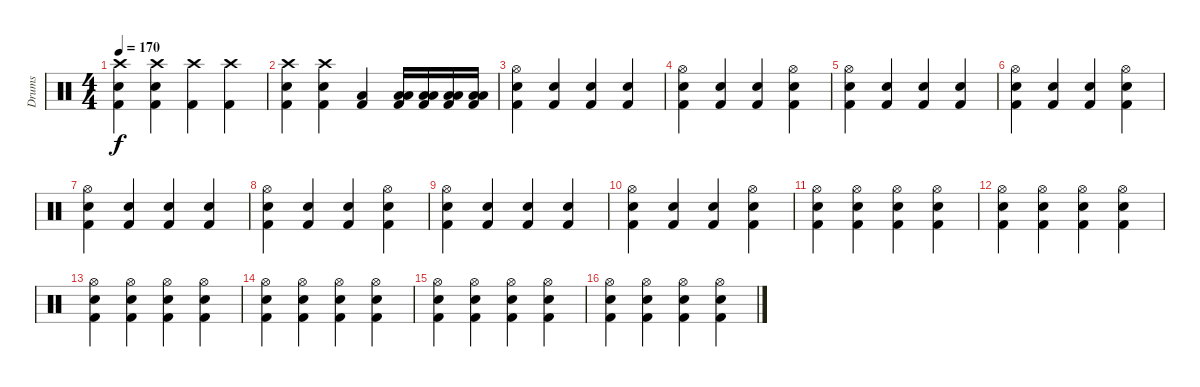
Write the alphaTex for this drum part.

\track ("Drums" "Drums") {instrument percussion}
\staff {score}
\articulation defaults
\ts (4 4)
\tempo 170
\clef neutral
\ks c
("Crash high (hit)" "Snare (hit) 2" "Kick (hit) 2").4{dy f} ("Crash high (hit)" "Snare (hit) 2" "Kick (hit) 2").4 ("Crash high (hit)" "Kick (hit) 2").4 ("Crash high (hit)" "Kick (hit) 2").4 |
("Crash high (hit)" "Snare (hit) 2" "Kick (hit) 2").4 ("Crash high (hit)" "Snare (hit) 2" "Kick (hit) 2").4 ("Low Floor Tom (hit)" "Kick (hit) 2").4 ("Low Floor Tom (hit)" "Low Floor Tom (hit)" "Kick (hit) 2").16 ("Low Floor Tom (hit)" "Low Floor Tom (hit)" "Kick (hit) 2").16 ("Low Floor Tom (hit)" "Low Floor Tom (hit)" "Kick (hit) 2").16 ("Low Floor Tom (hit)" "Low Floor Tom (hit)" "Kick (hit) 2").16 |
("Hi-Hat (open)" "Snare (hit) 2" "Kick (hit) 2").4 ("Snare (hit) 2" "Kick (hit) 2").4 ("Snare (hit) 2" "Kick (hit) 2").4 ("Snare (hit) 2" "Kick (hit) 2").4 |
("Hi-Hat (open)" "Snare (hit) 2" "Kick (hit) 2").4 ("Snare (hit) 2" "Kick (hit) 2").4 ("Snare (hit) 2" "Kick (hit) 2").4 ("Hi-Hat (open)" "Snare (hit) 2" "Kick (hit) 2").4 |
("Hi-Hat (open)" "Snare (hit) 2" "Kick (hit) 2").4 ("Snare (hit) 2" "Kick (hit) 2").4 ("Snare (hit) 2" "Kick (hit) 2").4 ("Snare (hit) 2" "Kick (hit) 2").4 |
("Hi-Hat (open)" "Snare (hit) 2" "Kick (hit) 2").4 ("Snare (hit) 2" "Kick (hit) 2").4 ("Snare (hit) 2" "Kick (hit) 2").4 ("Hi-Hat (open)" "Snare (hit) 2" "Kick (hit) 2").4 |
("Hi-Hat (open)" "Snare (hit) 2" "Kick (hit) 2").4 ("Snare (hit) 2" "Kick (hit) 2").4 ("Snare (hit) 2" "Kick (hit) 2").4 ("Snare (hit) 2" "Kick (hit) 2").4 |
("Hi-Hat (open)" "Snare (hit) 2" "Kick (hit) 2").4 ("Snare (hit) 2" "Kick (hit) 2").4 ("Snare (hit) 2" "Kick (hit) 2").4 ("Hi-Hat (open)" "Snare (hit) 2" "Kick (hit) 2").4 |
("Hi-Hat (open)" "Snare (hit) 2" "Kick (hit) 2").4 ("Snare (hit) 2" "Kick (hit) 2").4 ("Snare (hit) 2" "Kick (hit) 2").4 ("Snare (hit) 2" "Kick (hit) 2").4 |
("Hi-Hat (open)" "Snare (hit) 2" "Kick (hit) 2").4 ("Snare (hit) 2" "Kick (hit) 2").4 ("Snare (hit) 2" "Kick (hit) 2").4 ("Hi-Hat (open)" "Snare (hit) 2" "Kick (hit) 2").4 |
("Hi-Hat (open)" "Snare (hit) 2" "Kick (hit) 2").4 ("Hi-Hat (open)" "Snare (hit) 2" "Kick (hit) 2").4 ("Hi-Hat (open)" "Snare (hit) 2" "Kick (hit) 2").4 ("Hi-Hat (open)" "Snare (hit) 2" "Kick (hit) 2").4 |
("Hi-Hat (open)" "Snare (hit) 2" "Kick (hit) 2").4 ("Hi-Hat (open)" "Snare (hit) 2" "Kick (hit) 2").4 ("Hi-Hat (open)" "Snare (hit) 2" "Kick (hit) 2").4 ("Hi-Hat (open)" "Snare (hit) 2" "Kick (hit) 2").4 |
("Hi-Hat (open)" "Snare (hit) 2" "Kick (hit) 2").4 ("Hi-Hat (open)" "Snare (hit) 2" "Kick (hit) 2").4 ("Hi-Hat (open)" "Snare (hit) 2" "Kick (hit) 2").4 ("Hi-Hat (open)" "Snare (hit) 2" "Kick (hit) 2").4 |
("Hi-Hat (open)" "Snare (hit) 2" "Kick (hit) 2").4 ("Hi-Hat (open)" "Snare (hit) 2" "Kick (hit) 2").4 ("Hi-Hat (open)" "Snare (hit) 2" "Kick (hit) 2").4 ("Hi-Hat (open)" "Snare (hit) 2" "Kick (hit) 2").4 |
("Hi-Hat (open)" "Snare (hit) 2" "Kick (hit) 2").4 ("Hi-Hat (open)" "Snare (hit) 2" "Kick (hit) 2").4 ("Hi-Hat (open)" "Snare (hit) 2" "Kick (hit) 2").4 ("Hi-Hat (open)" "Snare (hit) 2" "Kick (hit) 2").4 |
("Hi-Hat (open)" "Snare (hit) 2" "Kick (hit) 2").4 ("Hi-Hat (open)" "Snare (hit) 2" "Kick (hit) 2").4 ("Hi-Hat (open)" "Snare (hit) 2" "Kick (hit) 2").4 ("Hi-Hat (open)" "Snare (hit) 2" "Kick (hit) 2").4
